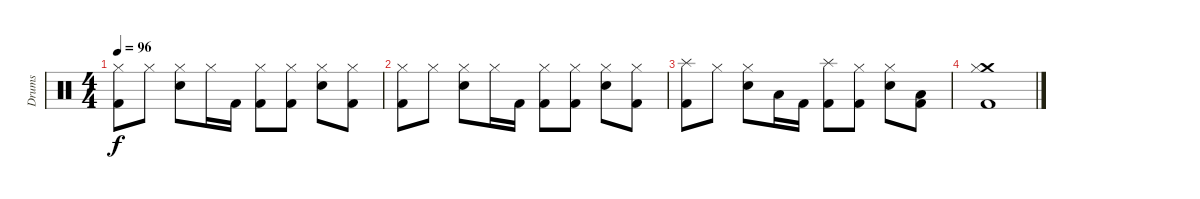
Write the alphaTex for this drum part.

\track ("Drums" "Drums") {instrument percussion}
\staff {score}
\articulation defaults
\ts (4 4)
\tempo 96
\clef neutral
\ks c
("Hi-Hat (closed)" "Kick (hit) 2").8{dy f} "Hi-Hat (closed)".8 ("Hi-Hat (closed)" "Snare (hit) 2").8 "Hi-Hat (closed)".16 "Kick (hit) 2".16 ("Hi-Hat (closed)" "Kick (hit) 2").8 ("Hi-Hat (closed)" "Kick (hit) 2").8 ("Hi-Hat (closed)" "Snare (hit) 2").8 ("Hi-Hat (closed)" "Kick (hit) 2").8 |
("Hi-Hat (closed)" "Kick (hit) 2").8 "Hi-Hat (closed)".8 ("Hi-Hat (closed)" "Snare (hit) 2").8 "Hi-Hat (closed)".16 "Kick (hit) 2".16 ("Hi-Hat (closed)" "Kick (hit) 2").8 ("Hi-Hat (closed)" "Kick (hit) 2").8 ("Hi-Hat (closed)" "Snare (hit) 2").8 ("Hi-Hat (closed)" "Kick (hit) 2").8 |
("Splash (hit)" "Kick (hit) 2").8 "Hi-Hat (closed)".8 ("Hi-Hat (closed)" "Snare (hit) 2").8 "Low Tom (hit)".16 "Kick (hit) 2".16 ("Splash (hit)" "Kick (hit) 2").8 ("Hi-Hat (closed)" "Kick (hit) 2").8 ("Hi-Hat (closed)" "Snare (hit) 2").8 ("Low Tom (hit)" "Kick (hit) 2").8 |
("Crash medium (hit)" "Hi-Hat (closed)" "Kick (hit) 2").1
